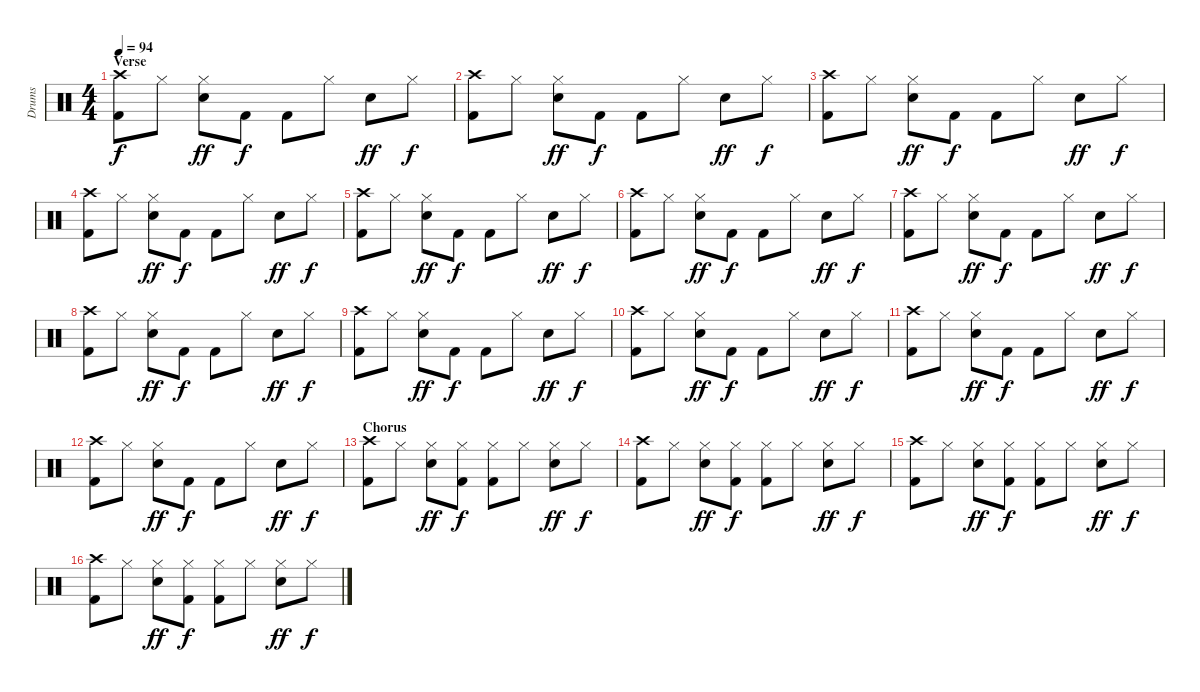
\track ("Drums" "Drums") {instrument percussion}
\staff {score}
\articulation defaults
\ts (4 4)
\section ("" "Verse")
\tempo 94
\clef neutral
\ks c
("Crash high (hit)" "Kick (hit) 2").8{dy f} "Hi-Hat (closed)".8 ("Hi-Hat (closed)" "Electric Snare (hit)").8{dy ff} "Kick (hit) 2".8{dy f} "Kick (hit) 2".8 "Hi-Hat (closed)".8 "Electric Snare (hit)".8{dy ff} "Hi-Hat (closed)".8{dy f} |
("Crash high (hit)" "Kick (hit) 2").8 "Hi-Hat (closed)".8 ("Hi-Hat (closed)" "Electric Snare (hit)").8{dy ff} "Kick (hit) 2".8{dy f} "Kick (hit) 2".8 "Hi-Hat (closed)".8 "Electric Snare (hit)".8{dy ff} "Hi-Hat (closed)".8{dy f} |
("Crash high (hit)" "Kick (hit) 2").8 "Hi-Hat (closed)".8 ("Hi-Hat (closed)" "Electric Snare (hit)").8{dy ff} "Kick (hit) 2".8{dy f} "Kick (hit) 2".8 "Hi-Hat (closed)".8 "Electric Snare (hit)".8{dy ff} "Hi-Hat (closed)".8{dy f} |
("Crash high (hit)" "Kick (hit) 2").8 "Hi-Hat (closed)".8 ("Hi-Hat (closed)" "Electric Snare (hit)").8{dy ff} "Kick (hit) 2".8{dy f} "Kick (hit) 2".8 "Hi-Hat (closed)".8 "Electric Snare (hit)".8{dy ff} "Hi-Hat (closed)".8{dy f} |
("Crash high (hit)" "Kick (hit) 2").8 "Hi-Hat (closed)".8 ("Hi-Hat (closed)" "Electric Snare (hit)").8{dy ff} "Kick (hit) 2".8{dy f} "Kick (hit) 2".8 "Hi-Hat (closed)".8 "Electric Snare (hit)".8{dy ff} "Hi-Hat (closed)".8{dy f} |
("Crash high (hit)" "Kick (hit) 2").8 "Hi-Hat (closed)".8 ("Hi-Hat (closed)" "Electric Snare (hit)").8{dy ff} "Kick (hit) 2".8{dy f} "Kick (hit) 2".8 "Hi-Hat (closed)".8 "Electric Snare (hit)".8{dy ff} "Hi-Hat (closed)".8{dy f} |
("Crash high (hit)" "Kick (hit) 2").8 "Hi-Hat (closed)".8 ("Hi-Hat (closed)" "Electric Snare (hit)").8{dy ff} "Kick (hit) 2".8{dy f} "Kick (hit) 2".8 "Hi-Hat (closed)".8 "Electric Snare (hit)".8{dy ff} "Hi-Hat (closed)".8{dy f} |
("Crash high (hit)" "Kick (hit) 2").8 "Hi-Hat (closed)".8 ("Hi-Hat (closed)" "Electric Snare (hit)").8{dy ff} "Kick (hit) 2".8{dy f} "Kick (hit) 2".8 "Hi-Hat (closed)".8 "Electric Snare (hit)".8{dy ff} "Hi-Hat (closed)".8{dy f} |
("Crash high (hit)" "Kick (hit) 2").8 "Hi-Hat (closed)".8 ("Hi-Hat (closed)" "Electric Snare (hit)").8{dy ff} "Kick (hit) 2".8{dy f} "Kick (hit) 2".8 "Hi-Hat (closed)".8 "Electric Snare (hit)".8{dy ff} "Hi-Hat (closed)".8{dy f} |
("Crash high (hit)" "Kick (hit) 2").8 "Hi-Hat (closed)".8 ("Hi-Hat (closed)" "Electric Snare (hit)").8{dy ff} "Kick (hit) 2".8{dy f} "Kick (hit) 2".8 "Hi-Hat (closed)".8 "Electric Snare (hit)".8{dy ff} "Hi-Hat (closed)".8{dy f} |
("Crash high (hit)" "Kick (hit) 2").8 "Hi-Hat (closed)".8 ("Hi-Hat (closed)" "Electric Snare (hit)").8{dy ff} "Kick (hit) 2".8{dy f} "Kick (hit) 2".8 "Hi-Hat (closed)".8 "Electric Snare (hit)".8{dy ff} "Hi-Hat (closed)".8{dy f} |
("Crash high (hit)" "Kick (hit) 2").8 "Hi-Hat (closed)".8 ("Hi-Hat (closed)" "Electric Snare (hit)").8{dy ff} "Kick (hit) 2".8{dy f} "Kick (hit) 2".8 "Hi-Hat (closed)".8 "Electric Snare (hit)".8{dy ff} "Hi-Hat (closed)".8{dy f} |
\section ("" "Chorus")
("Crash high (hit)" "Kick (hit) 2").8 "Hi-Hat (closed)".8 ("Hi-Hat (closed)" "Electric Snare (hit)").8{dy ff} ("Hi-Hat (closed)" "Kick (hit) 2").8{dy f} ("Hi-Hat (closed)" "Kick (hit) 2").8 "Hi-Hat (closed)".8 ("Hi-Hat (closed)" "Electric Snare (hit)").8{dy ff} "Hi-Hat (closed)".8{dy f} |
("Crash high (hit)" "Kick (hit) 2").8 "Hi-Hat (closed)".8 ("Hi-Hat (closed)" "Electric Snare (hit)").8{dy ff} ("Hi-Hat (closed)" "Kick (hit) 2").8{dy f} ("Hi-Hat (closed)" "Kick (hit) 2").8 "Hi-Hat (closed)".8 ("Hi-Hat (closed)" "Electric Snare (hit)").8{dy ff} "Hi-Hat (closed)".8{dy f} |
("Crash high (hit)" "Kick (hit) 2").8 "Hi-Hat (closed)".8 ("Hi-Hat (closed)" "Electric Snare (hit)").8{dy ff} ("Hi-Hat (closed)" "Kick (hit) 2").8{dy f} ("Hi-Hat (closed)" "Kick (hit) 2").8 "Hi-Hat (closed)".8 ("Hi-Hat (closed)" "Electric Snare (hit)").8{dy ff} "Hi-Hat (closed)".8{dy f} |
("Crash high (hit)" "Kick (hit) 2").8 "Hi-Hat (closed)".8 ("Hi-Hat (closed)" "Electric Snare (hit)").8{dy ff} ("Hi-Hat (closed)" "Kick (hit) 2").8{dy f} ("Hi-Hat (closed)" "Kick (hit) 2").8 "Hi-Hat (closed)".8 ("Hi-Hat (closed)" "Electric Snare (hit)").8{dy ff} "Hi-Hat (closed)".8{dy f}
